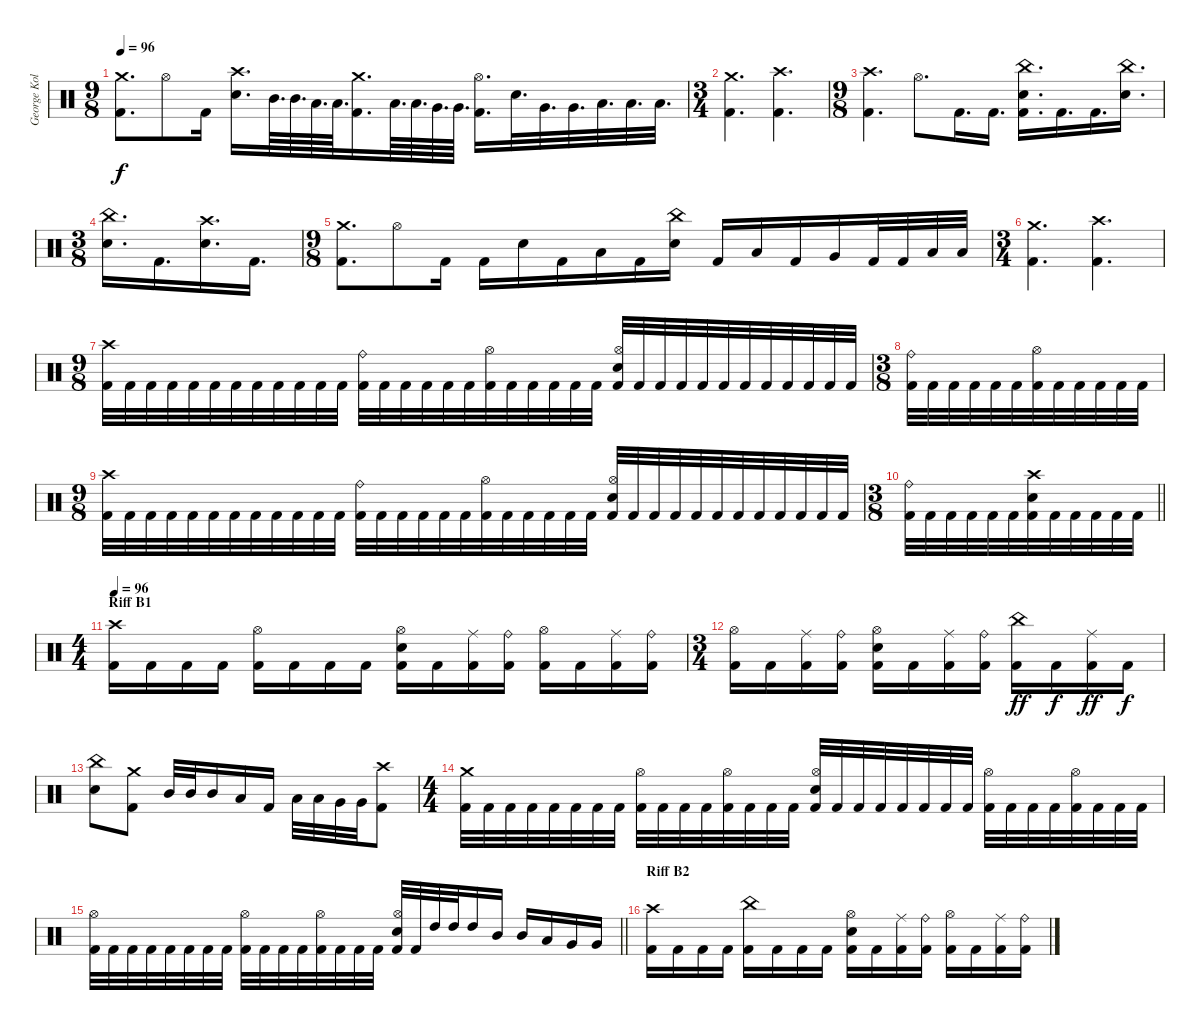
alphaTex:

\track ("George Kollias" "George Kol") {instrument percussion}
\staff {score}
\articulation defaults
\ts (9 8)
\tempo 96
\clef neutral
\ks c
("Crash medium (hit)" "Kick (hit) 2").8{d dy f} "Hi-Hat (open)".8 "Kick (hit) 2".16 ("Crash high (hit)" "Electric Snare (hit)").16{d} "Mid Tom (hit)".64{d} "Mid Tom (hit)".64{d} "Low Tom (hit)".64{d} "Low Tom (hit)".64{d} ("Crash medium (hit)" "Kick (hit) 2").16{d} "Low Tom (hit)".64{d} "Low Tom (hit)".64{d} "Very Low Tom (hit)".64{d} "Very Low Tom (hit)".64{d} ("Hi-Hat (open)" "Kick (hit) 2").16{d} "Electric Snare (hit)".32{d} "Very Low Tom (hit)".32{d} "Very Low Tom (hit)".32{d} "Low Floor Tom (hit)".32{d} "Low Floor Tom (hit)".32{d} "Low Floor Tom (hit)".32{d} |
\ts (3 4)
("Crash medium (hit)" "Kick (hit) 2").4{d} ("Crash high (hit)" "Kick (hit) 2").4{d} |
\ts (9 8)
("Crash high (hit)" "Kick (hit) 2").4{d} "Hi-Hat (open)".8{d} "Kick (hit) 2".16{d} "Kick (hit) 2".16{d} ("China (hit)" "Electric Snare (hit)" "Kick (hit) 2").16{d} "Kick (hit) 2".16{d} "Kick (hit) 2".16{d} ("China (hit)" "Electric Snare (hit)").16{d} |
\ts (3 8)
("China (hit)" "Electric Snare (hit)").16{d} "Kick (hit) 2".16{d} ("Crash high (hit)" "Electric Snare (hit)").16{d} "Kick (hit) 2".16{d} |
\ts (9 8)
("Crash medium (hit)" "Kick (hit) 2").8{d} "Hi-Hat (open)".8 "Kick (hit) 2".16 "Kick (hit) 2".16 "Electric Snare (hit)".16 "Kick (hit) 2".16 "Low Tom (hit)".16 "Kick (hit) 2".16 ("China (hit)" "Electric Snare (hit)").16 "Kick (hit) 2".16 "Low Tom (hit)".16 "Kick (hit) 2".16 "Very Low Tom (hit)".16 "Kick (hit) 2".32 "Kick (hit) 2".32 "Low Floor Tom (hit)".32 "Low Floor Tom (hit)".32 |
\ts (3 4)
("Crash medium (hit)" "Kick (hit) 2").4{d} ("Crash high (hit)" "Kick (hit) 2").4{d} |
\ts (9 8)
("Crash high (hit)" "Kick (hit) 2").32 "Kick (hit) 2".32 "Kick (hit) 2".32 "Kick (hit) 2".32 "Kick (hit) 2".32 "Kick (hit) 2".32 "Kick (hit) 2".32 "Kick (hit) 2".32 "Kick (hit) 2".32 "Kick (hit) 2".32 "Kick (hit) 2".32 "Kick (hit) 2".32 ("Ride (bell)" "Kick (hit) 2").32 "Kick (hit) 2".32 "Kick (hit) 2".32 "Kick (hit) 2".32 "Kick (hit) 2".32 "Kick (hit) 2".32 ("Hi-Hat (open)" "Kick (hit) 2").32 "Kick (hit) 2".32 "Kick (hit) 2".32 "Kick (hit) 2".32 "Kick (hit) 2".32 "Kick (hit) 2".32 ("Hi-Hat (open)" "Electric Snare (hit)" "Kick (hit) 2").32 "Kick (hit) 2".32 "Kick (hit) 2".32 "Kick (hit) 2".32 "Kick (hit) 2".32 "Kick (hit) 2".32 "Kick (hit) 2".32 "Kick (hit) 2".32 "Kick (hit) 2".32 "Kick (hit) 2".32 "Kick (hit) 2".32 "Kick (hit) 2".32 |
\ts (3 8)
("Ride (bell)" "Kick (hit) 2").32 "Kick (hit) 2".32 "Kick (hit) 2".32 "Kick (hit) 2".32 "Kick (hit) 2".32 "Kick (hit) 2".32 ("Hi-Hat (open)" "Kick (hit) 2").32 "Kick (hit) 2".32 "Kick (hit) 2".32 "Kick (hit) 2".32 "Kick (hit) 2".32 "Kick (hit) 2".32 |
\ts (9 8)
("Crash high (hit)" "Kick (hit) 2").32 "Kick (hit) 2".32 "Kick (hit) 2".32 "Kick (hit) 2".32 "Kick (hit) 2".32 "Kick (hit) 2".32 "Kick (hit) 2".32 "Kick (hit) 2".32 "Kick (hit) 2".32 "Kick (hit) 2".32 "Kick (hit) 2".32 "Kick (hit) 2".32 ("Ride (bell)" "Kick (hit) 2").32 "Kick (hit) 2".32 "Kick (hit) 2".32 "Kick (hit) 2".32 "Kick (hit) 2".32 "Kick (hit) 2".32 ("Hi-Hat (open)" "Kick (hit) 2").32 "Kick (hit) 2".32 "Kick (hit) 2".32 "Kick (hit) 2".32 "Kick (hit) 2".32 "Kick (hit) 2".32 ("Hi-Hat (open)" "Electric Snare (hit)" "Kick (hit) 2").32 "Kick (hit) 2".32 "Kick (hit) 2".32 "Kick (hit) 2".32 "Kick (hit) 2".32 "Kick (hit) 2".32 "Kick (hit) 2".32 "Kick (hit) 2".32 "Kick (hit) 2".32 "Kick (hit) 2".32 "Kick (hit) 2".32 "Kick (hit) 2".32 |
\ts (3 8)
\barLineRight lightlight
("Ride (bell)" "Kick (hit) 2").32 "Kick (hit) 2".32 "Kick (hit) 2".32 "Kick (hit) 2".32 "Kick (hit) 2".32 "Kick (hit) 2".32 ("Crash high (hit)" "Electric Snare (hit)" "Kick (hit) 2").32 "Kick (hit) 2".32 "Kick (hit) 2".32 "Kick (hit) 2".32 "Kick (hit) 2".32 "Kick (hit) 2".32 |
\ts (4 4)
\section ("" "Riff B1")
\tempo 96
("Crash high (hit)" "Kick (hit) 2").16 "Kick (hit) 2".16 "Kick (hit) 2".16 "Kick (hit) 2".16 ("Hi-Hat (open)" "Kick (hit) 2").16 "Kick (hit) 2".16 "Kick (hit) 2".16 "Kick (hit) 2".16 ("Hi-Hat (open)" "Electric Snare (hit)" "Kick (hit) 2").16 "Kick (hit) 2".16 ("Ride (middle)" "Kick (hit) 2").16 ("Ride (bell)" "Kick (hit) 2").16 ("Hi-Hat (open)" "Kick (hit) 2").16 "Kick (hit) 2".16 ("Ride (middle)" "Kick (hit) 2").16 ("Ride (bell)" "Kick (hit) 2").16 |
\ts (3 4)
("Hi-Hat (open)" "Kick (hit) 2").16 "Kick (hit) 2".16 ("Ride (middle)" "Kick (hit) 2").16 ("Ride (bell)" "Kick (hit) 2").16 ("Hi-Hat (open)" "Electric Snare (hit)" "Kick (hit) 2").16 "Kick (hit) 2".16 ("Ride (middle)" "Kick (hit) 2").16 ("Ride (bell)" "Kick (hit) 2").16 ("China (hit)" "Kick (hit) 2").16{dy ff} "Kick (hit) 2".16{dy f} ("Ride (middle)" "Kick (hit) 2").16{dy ff} "Kick (hit) 2".16{dy f} |
("China (hit)" "Electric Snare (hit)").8 ("Crash medium (hit)" "Kick (hit) 2").8 "Mid Tom (hit)".32 "Mid Tom (hit)".32 "Mid Tom (hit)".16 "Low Tom (hit)".16 "Kick (hit) 2".16 "Low Tom (hit)".32 "Low Tom (hit)".32 "Very Low Tom (hit)".32 "Very Low Tom (hit)".32 ("Crash high (hit)" "Kick (hit) 2").8 |
\ts (4 4)
("Crash medium (hit)" "Kick (hit) 2").32 "Kick (hit) 2".32 "Kick (hit) 2".32 "Kick (hit) 2".32 "Kick (hit) 2".32 "Kick (hit) 2".32 "Kick (hit) 2".32 "Kick (hit) 2".32 ("Hi-Hat (open)" "Kick (hit) 2").32 "Kick (hit) 2".32 "Kick (hit) 2".32 "Kick (hit) 2".32 ("Hi-Hat (open)" "Kick (hit) 2").32 "Kick (hit) 2".32 "Kick (hit) 2".32 "Kick (hit) 2".32 ("Hi-Hat (open)" "Electric Snare (hit)" "Kick (hit) 2").32 "Kick (hit) 2".32 "Kick (hit) 2".32 "Kick (hit) 2".32 "Kick (hit) 2".32 "Kick (hit) 2".32 "Kick (hit) 2".32 "Kick (hit) 2".32 ("Hi-Hat (open)" "Kick (hit) 2").32 "Kick (hit) 2".32 "Kick (hit) 2".32 "Kick (hit) 2".32 ("Hi-Hat (open)" "Kick (hit) 2").32 "Kick (hit) 2".32 "Kick (hit) 2".32 "Kick (hit) 2".32 |
\barLineRight lightlight
("Hi-Hat (open)" "Kick (hit) 2").32 "Kick (hit) 2".32 "Kick (hit) 2".32 "Kick (hit) 2".32 "Kick (hit) 2".32 "Kick (hit) 2".32 "Kick (hit) 2".32 "Kick (hit) 2".32 ("Hi-Hat (open)" "Kick (hit) 2").32 "Kick (hit) 2".32 "Kick (hit) 2".32 "Kick (hit) 2".32 ("Hi-Hat (open)" "Kick (hit) 2").32 "Kick (hit) 2".32 "Kick (hit) 2".32 "Kick (hit) 2".32 ("Hi-Hat (open)" "Electric Snare (hit)" "Kick (hit) 2").32 "Kick (hit) 2".32 "High Tom (hit)".32 "High Tom (hit)".32 "High Tom (hit)".16 "Mid Tom (hit)".16 "Mid Tom (hit)".16 "Low Tom (hit)".16 "Very Low Tom (hit)".16 "Very Low Tom (hit)".16 |
\section ("" "Riff B2")
("Crash high (hit)" "Kick (hit) 2").16 "Kick (hit) 2".16 "Kick (hit) 2".16 "Kick (hit) 2".16 ("China (hit)" "Kick (hit) 2").16 "Kick (hit) 2".16 "Kick (hit) 2".16 "Kick (hit) 2".16 ("Hi-Hat (open)" "Electric Snare (hit)" "Kick (hit) 2").16 "Kick (hit) 2".16 ("Ride (middle)" "Kick (hit) 2").16 ("Ride (bell)" "Kick (hit) 2").16 ("Hi-Hat (open)" "Kick (hit) 2").16 "Kick (hit) 2".16 ("Ride (middle)" "Kick (hit) 2").16 ("Ride (bell)" "Kick (hit) 2").16
